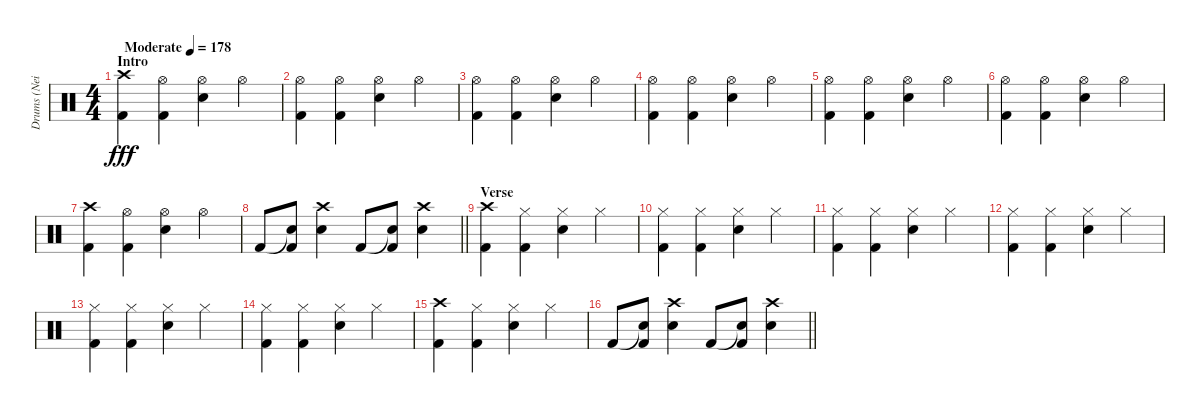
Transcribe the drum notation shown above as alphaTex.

\track ("Drums (Neil Sanderson)" "Drums (Nei") {instrument percussion}
\staff {score}
\articulation defaults
\ts (4 4)
\section ("" "Intro")
\tempo (178 "Moderate")
\clef neutral
\ks c
("Crash high (hit)" "Kick (hit) 2").4{dy fff} ("Hi-Hat (open)" "Kick (hit) 2").4 ("Hi-Hat (open)" "Snare (hit) 2").4 "Hi-Hat (open)".4 |
("Hi-Hat (open)" "Kick (hit) 2").4 ("Hi-Hat (open)" "Kick (hit) 2").4 ("Hi-Hat (open)" "Snare (hit) 2").4 "Hi-Hat (open)".4 |
("Hi-Hat (open)" "Kick (hit) 2").4 ("Hi-Hat (open)" "Kick (hit) 2").4 ("Hi-Hat (open)" "Snare (hit) 2").4 "Hi-Hat (open)".4 |
("Hi-Hat (open)" "Kick (hit) 2").4 ("Hi-Hat (open)" "Kick (hit) 2").4 ("Hi-Hat (open)" "Snare (hit) 2").4 "Hi-Hat (open)".4 |
("Hi-Hat (open)" "Kick (hit) 2").4 ("Hi-Hat (open)" "Kick (hit) 2").4 ("Hi-Hat (open)" "Snare (hit) 2").4 "Hi-Hat (open)".4 |
("Hi-Hat (open)" "Kick (hit) 2").4 ("Hi-Hat (open)" "Kick (hit) 2").4 ("Hi-Hat (open)" "Snare (hit) 2").4 "Hi-Hat (open)".4 |
("Crash high (hit)" "Kick (hit) 2").4 ("Hi-Hat (open)" "Kick (hit) 2").4 ("Hi-Hat (open)" "Snare (hit) 2").4 "Hi-Hat (open)".4 |
\barLineRight lightlight "Kick (hit) 2".8
("Snare (hit)"{t} "Kick (hit) 2").8 ("Crash high (hit)" "Snare (hit) 2").4 "Kick (hit) 2".8 ("Snare (hit)"{t} "Kick (hit) 2").8 ("Crash high (hit)" "Snare (hit) 2").4 |
\section ("" "Verse")
("Crash high (hit)" "Kick (hit) 2").4 ("Hi-Hat (closed)" "Kick (hit) 2").4 ("Hi-Hat (closed)" "Snare (hit) 2").4 "Hi-Hat (closed)".4 |
("Hi-Hat (closed)" "Kick (hit) 2").4 ("Hi-Hat (closed)" "Kick (hit) 2").4 ("Hi-Hat (closed)" "Snare (hit) 2").4 "Hi-Hat (closed)".4 |
("Hi-Hat (closed)" "Kick (hit) 2").4 ("Hi-Hat (closed)" "Kick (hit) 2").4 ("Hi-Hat (closed)" "Snare (hit) 2").4 "Hi-Hat (closed)".4 |
("Hi-Hat (closed)" "Kick (hit) 2").4 ("Hi-Hat (closed)" "Kick (hit) 2").4 ("Hi-Hat (closed)" "Snare (hit) 2").4 "Hi-Hat (closed)".4 |
("Hi-Hat (closed)" "Kick (hit) 2").4 ("Hi-Hat (closed)" "Kick (hit) 2").4 ("Hi-Hat (closed)" "Snare (hit) 2").4 "Hi-Hat (closed)".4 |
("Hi-Hat (closed)" "Kick (hit) 2").4 ("Hi-Hat (closed)" "Kick (hit) 2").4 ("Hi-Hat (closed)" "Snare (hit) 2").4 "Hi-Hat (closed)".4 |
("Crash high (hit)" "Kick (hit) 2").4 ("Hi-Hat (closed)" "Kick (hit) 2").4 ("Hi-Hat (closed)" "Snare (hit) 2").4 "Hi-Hat (closed)".4 |
\barLineRight lightlight "Kick (hit) 2".8
("Snare (hit)"{t} "Kick (hit) 2").8 ("Crash high (hit)" "Snare (hit) 2").4 "Kick (hit) 2".8 ("Snare (hit)"{t} "Kick (hit) 2").8 ("Crash high (hit)" "Snare (hit) 2").4
